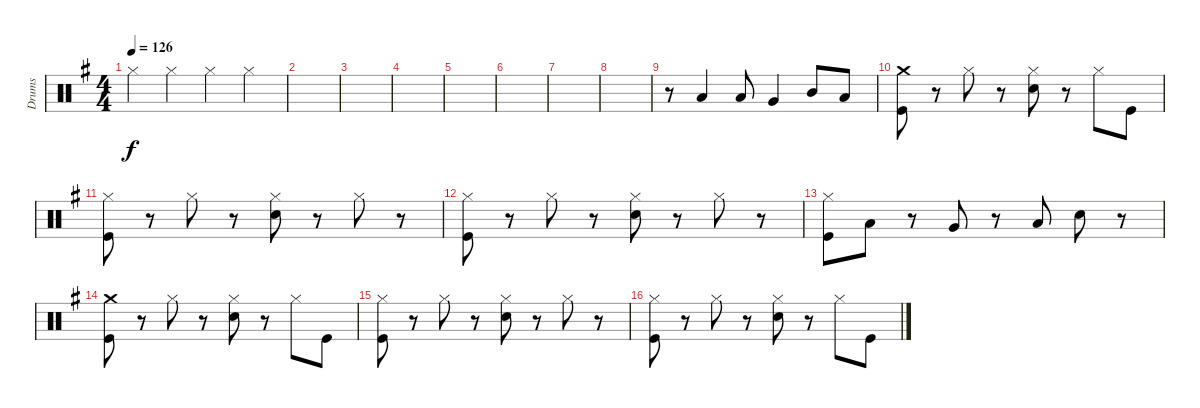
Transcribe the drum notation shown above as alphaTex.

\track ("Drums" "Drums") {instrument percussion}
\staff {score}
\articulation defaults
\ts (4 4)
\tempo 126
\clef neutral
\ks g "Hi-Hat (closed)".4{dy f} "Hi-Hat (closed)".4 "Hi-Hat (closed)".4 "Hi-Hat (closed)".4
|
|
|
|
|
|
|
|
r.8 "Low Floor Tom (hit)".4 "Low Floor Tom (hit)".8 "Very Low Tom (hit)".4 "Mid Tom (hit)".8 "Low Tom (hit)".8 |
("Kick (hit)" "Crash medium (hit)").8 r.8 "Hi-Hat (closed)".8 r.8 ("Electric Snare (hit)" "Hi-Hat (closed)").8 r.8 "Hi-Hat (closed)".8 "Kick (hit)".8 |
("Kick (hit)" "Hi-Hat (closed)").8 r.8 "Hi-Hat (closed)".8 r.8 ("Electric Snare (hit)" "Hi-Hat (closed)").8 r.8 "Hi-Hat (closed)".8 r.8 |
("Kick (hit)" "Hi-Hat (closed)").8 r.8 "Hi-Hat (closed)".8 r.8 ("Electric Snare (hit)" "Hi-Hat (closed)").8 r.8 "Hi-Hat (closed)".8 r.8 |
("Kick (hit)" "Hi-Hat (closed)").8 "Low Floor Tom (hit)".8 r.8 "Very Low Tom (hit)".8 r.8 "Low Tom (hit)".8 "Electric Snare (hit)".8 r.8 |
("Kick (hit)" "Crash medium (hit)").8 r.8 "Hi-Hat (closed)".8 r.8 ("Electric Snare (hit)" "Hi-Hat (closed)").8 r.8 "Hi-Hat (closed)".8 "Kick (hit)".8 |
("Kick (hit)" "Hi-Hat (closed)").8 r.8 "Hi-Hat (closed)".8 r.8 ("Electric Snare (hit)" "Hi-Hat (closed)").8 r.8 "Hi-Hat (closed)".8 r.8 |
("Kick (hit)" "Hi-Hat (closed)").8 r.8 "Hi-Hat (closed)".8 r.8 ("Electric Snare (hit)" "Hi-Hat (closed)").8 r.8 "Hi-Hat (closed)".8 "Kick (hit)".8
